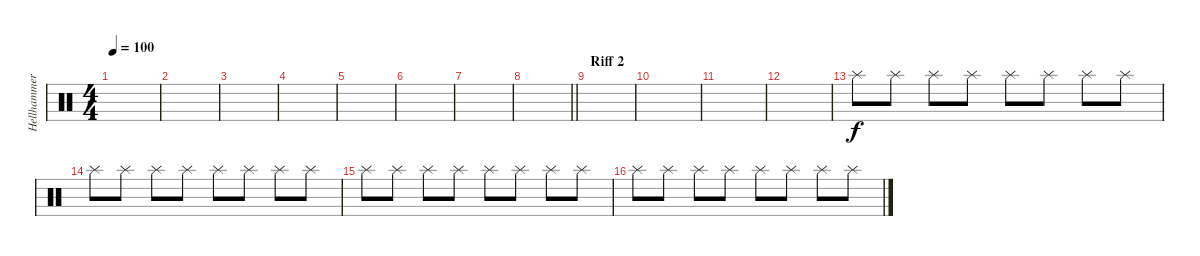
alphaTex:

\track ("Hellhammer 2" "Hellhammer") {instrument percussion}
\staff {score}
\articulation defaults
\ts (4 4)
\tempo 100
\clef neutral
\ks c
|
|
|
|
|
|
|
\barLineRight lightlight
|
\section ("" "Riff 2")
|
|
|
|
"Splash (hit)".8 "Splash (hit)".8 "Splash (hit)".8 "Splash (hit)".8 "Splash (hit)".8 "Splash (hit)".8 "Splash (hit)".8 "Splash (hit)".8 |
"Splash (hit)".8 "Splash (hit)".8 "Splash (hit)".8 "Splash (hit)".8 "Splash (hit)".8 "Splash (hit)".8 "Splash (hit)".8 "Splash (hit)".8 |
"Splash (hit)".8 "Splash (hit)".8 "Splash (hit)".8 "Splash (hit)".8 "Splash (hit)".8 "Splash (hit)".8 "Splash (hit)".8 "Splash (hit)".8 |
"Splash (hit)".8 "Splash (hit)".8 "Splash (hit)".8 "Splash (hit)".8 "Splash (hit)".8 "Splash (hit)".8 "Splash (hit)".8 "Splash (hit)".8
